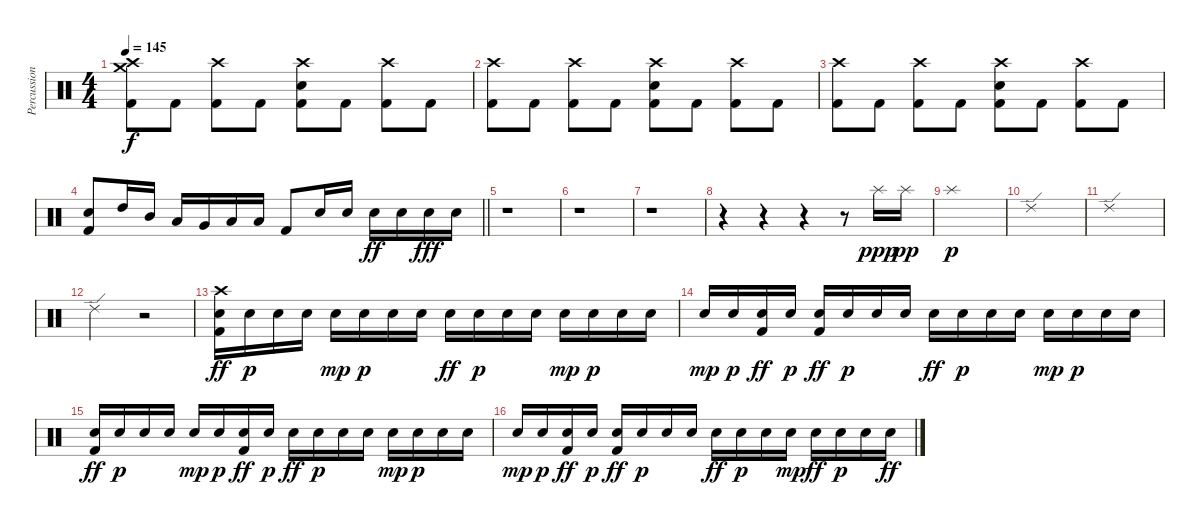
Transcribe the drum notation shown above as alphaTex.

\track ("Percussions" "Percussion") {instrument percussion}
\staff {score}
\articulation defaults
\ts (4 4)
\tempo 145
\clef neutral
\ks c
("Crash medium (hit)" "Crash high (hit)" "Kick (hit) 2").8{dy f} "Kick (hit) 2".8 ("Crash high (hit)" "Kick (hit) 2").8 "Kick (hit) 2".8 ("Crash high (hit)" "Electric Snare (hit)" "Kick (hit) 2").8 "Kick (hit) 2".8 ("Crash high (hit)" "Kick (hit) 2").8 "Kick (hit) 2".8 |
("Crash high (hit)" "Kick (hit) 2").8 "Kick (hit) 2".8 ("Crash high (hit)" "Kick (hit) 2").8 "Kick (hit) 2".8 ("Crash high (hit)" "Electric Snare (hit)" "Kick (hit) 2").8 "Kick (hit) 2".8 ("Crash high (hit)" "Kick (hit) 2").8 "Kick (hit) 2".8 |
("Crash high (hit)" "Kick (hit) 2").8 "Kick (hit) 2".8 ("Crash high (hit)" "Kick (hit) 2").8 "Kick (hit) 2".8 ("Crash high (hit)" "Electric Snare (hit)" "Kick (hit) 2").8 "Kick (hit) 2".8 ("Crash high (hit)" "Kick (hit) 2").8 "Kick (hit) 2".8 |
\barLineRight lightlight
("Electric Snare (hit)" "Kick (hit) 2").8 "High Tom (hit)".16 "Mid Tom (hit)".16 "Low Tom (hit)".16 "Very Low Tom (hit)".16 "Low Floor Tom (hit)".16 "Low Floor Tom (hit)".16 "Kick (hit) 2".8 "Electric Snare (hit)".16 "Electric Snare (hit)".16 "Electric Snare (hit)".16{dy ff} "Electric Snare (hit)".16 "Electric Snare (hit)".16{dy fff} "Electric Snare (hit)".16 |
\section ("" "")
r.1 |
r.1 |
r.1 |
r.4 r.4 r.4 r.8 "Splash (hit)".16{dy ppp} "Splash (hit)".16{dy pp} |
"Splash (hit)".1{dy p} |
"Ride (edge) 2".1 |
"Ride (edge) 2".1 |
"Ride (edge) 2".2 r.2 |
("Crash high (hit)" "Electric Snare (hit)" "Kick (hit) 2").16{dy ff} "Snare (hit) 2".16{dy p} "Snare (hit) 2".16 "Snare (hit) 2".16 "Snare (hit) 2".16{dy mp} "Snare (hit) 2".16{dy p} "Snare (hit) 2".16 "Snare (hit) 2".16 "Electric Snare (hit)".16{dy ff} "Snare (hit) 2".16{dy p} "Snare (hit) 2".16 "Snare (hit) 2".16 "Snare (hit) 2".16{dy mp} "Snare (hit) 2".16{dy p} "Snare (hit) 2".16 "Snare (hit) 2".16 |
"Snare (hit) 2".16{dy mp} "Snare (hit) 2".16{dy p} ("Snare (hit) 2" "Kick (hit) 2").16{dy ff} "Snare (hit) 2".16{dy p} ("Snare (hit) 2" "Kick (hit) 2").16{dy ff} "Snare (hit) 2".16{dy p} "Snare (hit) 2".16 "Snare (hit) 2".16 "Electric Snare (hit)".16{dy ff} "Snare (hit) 2".16{dy p} "Snare (hit) 2".16 "Snare (hit) 2".16 "Snare (hit) 2".16{dy mp} "Snare (hit) 2".16{dy p} "Snare (hit) 2".16 "Snare (hit) 2".16 |
("Snare (hit) 2" "Kick (hit) 2").16{dy ff} "Snare (hit) 2".16{dy p} "Snare (hit) 2".16 "Snare (hit) 2".16 "Snare (hit) 2".16{dy mp} "Snare (hit) 2".16{dy p} ("Snare (hit) 2" "Kick (hit) 2").16{dy ff} "Snare (hit) 2".16{dy p} "Electric Snare (hit)".16{dy ff} "Snare (hit) 2".16{dy p} "Snare (hit) 2".16 "Snare (hit) 2".16 "Snare (hit) 2".16{dy mp} "Snare (hit) 2".16{dy p} "Snare (hit) 2".16 "Snare (hit) 2".16 |
"Snare (hit) 2".16{dy mp} "Snare (hit) 2".16{dy p} ("Snare (hit) 2" "Kick (hit) 2").16{dy ff} "Snare (hit) 2".16{dy p} ("Snare (hit) 2" "Kick (hit) 2").16{dy ff} "Snare (hit) 2".16{dy p} "Snare (hit) 2".16 "Snare (hit) 2".16 "Electric Snare (hit)".16{dy ff} "Snare (hit) 2".16{dy p} "Snare (hit) 2".16 "Snare (hit) 2".16{dy mp} "Electric Snare (hit)".16{dy ff} "Snare (hit) 2".16{dy p} "Snare (hit) 2".16 "Electric Snare (hit)".16{dy ff}
